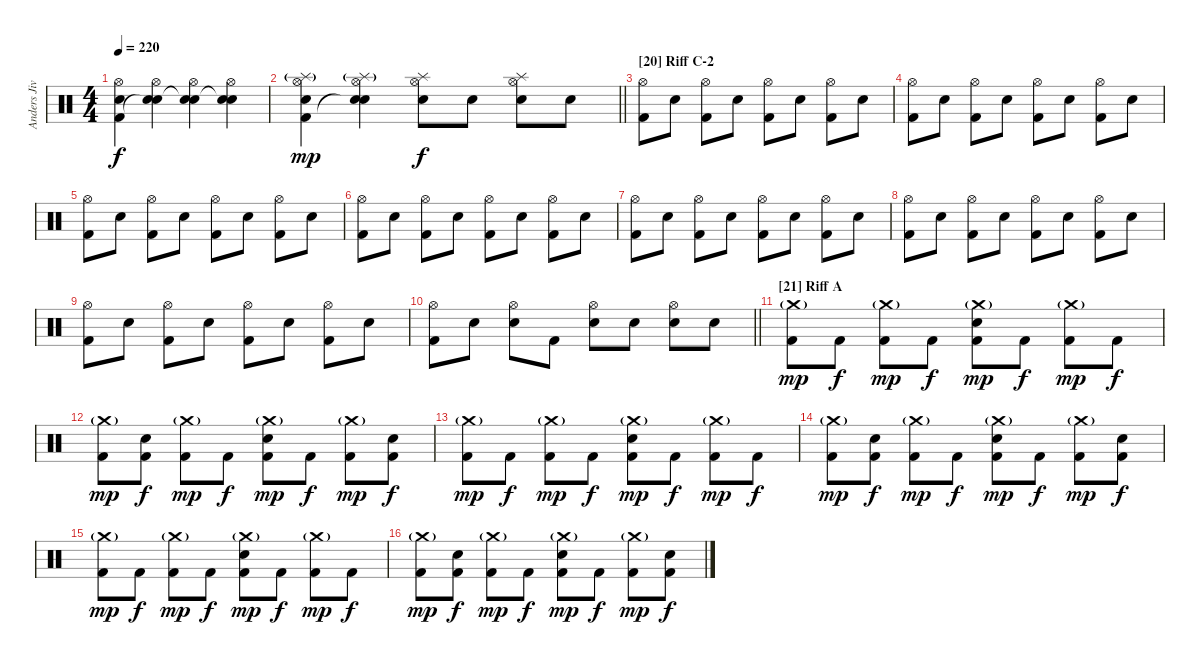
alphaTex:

\track ("Anders Jivarp" "Anders Jiv") {instrument percussion}
\staff {score}
\articulation defaults
\ts (4 4)
\tempo 220
\clef neutral
\ks c
("Hi-Hat (open)" "Snare (hit) 2" "Kick (hit) 2"{t}).4{dy f} ("Hi-Hat (open)" "Snare (hit) 2" "Snare (hit)"{t}).4 ("Hi-Hat (open)" "Snare (hit) 2" "Snare (hit)"{t}).4 ("Hi-Hat (open)" "Snare (hit) 2" "Snare (hit)"{t}).4 |
\barLineRight lightlight
("Splash (hit)"{g} "Hi-Hat (open)" "Snare (hit) 2" "Kick (hit) 2").4{dy mp} ("Splash (hit)"{g} "Hi-Hat (open)" "Snare (hit) 2" "Snare (hit)"{t}).4 ("Splash (hit)" "Hi-Hat (open)" "Snare (hit) 2").8{dy f} "Snare (hit) 2".8 ("Splash (hit)" "Hi-Hat (open)" "Snare (hit) 2").8 "Snare (hit) 2".8 |
\section ("" "[20] Riff C-2")
("Hi-Hat (open)" "Kick (hit) 2").8 "Snare (hit) 2".8 ("Hi-Hat (open)" "Kick (hit) 2").8 "Snare (hit) 2".8 ("Hi-Hat (open)" "Kick (hit) 2").8 "Snare (hit) 2".8 ("Hi-Hat (open)" "Kick (hit) 2").8 "Snare (hit) 2".8 |
("Hi-Hat (open)" "Kick (hit) 2").8 "Snare (hit) 2".8 ("Hi-Hat (open)" "Kick (hit) 2").8 "Snare (hit) 2".8 ("Hi-Hat (open)" "Kick (hit) 2").8 "Snare (hit) 2".8 ("Hi-Hat (open)" "Kick (hit) 2").8 "Snare (hit) 2".8 |
("Hi-Hat (open)" "Kick (hit) 2").8 "Snare (hit) 2".8 ("Hi-Hat (open)" "Kick (hit) 2").8 "Snare (hit) 2".8 ("Hi-Hat (open)" "Kick (hit) 2").8 "Snare (hit) 2".8 ("Hi-Hat (open)" "Kick (hit) 2").8 "Snare (hit) 2".8 |
("Hi-Hat (open)" "Kick (hit) 2").8 "Snare (hit) 2".8 ("Hi-Hat (open)" "Kick (hit) 2").8 "Snare (hit) 2".8 ("Hi-Hat (open)" "Kick (hit) 2").8 "Snare (hit) 2".8 ("Hi-Hat (open)" "Kick (hit) 2").8 "Snare (hit) 2".8 |
("Hi-Hat (open)" "Kick (hit) 2").8 "Snare (hit) 2".8 ("Hi-Hat (open)" "Kick (hit) 2").8 "Snare (hit) 2".8 ("Hi-Hat (open)" "Kick (hit) 2").8 "Snare (hit) 2".8 ("Hi-Hat (open)" "Kick (hit) 2").8 "Snare (hit) 2".8 |
("Hi-Hat (open)" "Kick (hit) 2").8 "Snare (hit) 2".8 ("Hi-Hat (open)" "Kick (hit) 2").8 "Snare (hit) 2".8 ("Hi-Hat (open)" "Kick (hit) 2").8 "Snare (hit) 2".8 ("Hi-Hat (open)" "Kick (hit) 2").8 "Snare (hit) 2".8 |
("Hi-Hat (open)" "Kick (hit) 2").8 "Snare (hit) 2".8 ("Hi-Hat (open)" "Kick (hit) 2").8 "Snare (hit) 2".8 ("Hi-Hat (open)" "Kick (hit) 2").8 "Snare (hit) 2".8 ("Hi-Hat (open)" "Kick (hit) 2").8 "Snare (hit) 2".8 |
\barLineRight lightlight
("Hi-Hat (open)" "Kick (hit) 2").8 "Snare (hit) 2".8 ("Hi-Hat (open)" "Snare (hit) 2").8 "Kick (hit) 2".8 ("Hi-Hat (open)" "Snare (hit) 2").8 "Snare (hit) 2".8 ("Hi-Hat (open)" "Snare (hit) 2").8 "Snare (hit) 2".8 |
\section ("" "[21] Riff A")
("Crash medium (hit)"{g} "Kick (hit) 2").8{dy mp} "Kick (hit) 2".8{dy f} ("Crash medium (hit)"{g} "Kick (hit) 2").8{dy mp} "Kick (hit) 2".8{dy f} ("Crash medium (hit)"{g} "Snare (hit) 2" "Kick (hit) 2").8{dy mp} "Kick (hit) 2".8{dy f} ("Crash medium (hit)"{g} "Kick (hit) 2").8{dy mp} "Kick (hit) 2".8{dy f} |
("Crash medium (hit)"{g} "Kick (hit) 2").8{dy mp} ("Snare (hit) 2" "Kick (hit) 2").8{dy f} ("Crash medium (hit)"{g} "Kick (hit) 2").8{dy mp} "Kick (hit) 2".8{dy f} ("Crash medium (hit)"{g} "Snare (hit) 2" "Kick (hit) 2").8{dy mp} "Kick (hit) 2".8{dy f} ("Crash medium (hit)"{g} "Kick (hit) 2").8{dy mp} ("Snare (hit) 2" "Kick (hit) 2").8{dy f} |
("Crash medium (hit)"{g} "Kick (hit) 2").8{dy mp} "Kick (hit) 2".8{dy f} ("Crash medium (hit)"{g} "Kick (hit) 2").8{dy mp} "Kick (hit) 2".8{dy f} ("Crash medium (hit)"{g} "Snare (hit) 2" "Kick (hit) 2").8{dy mp} "Kick (hit) 2".8{dy f} ("Crash medium (hit)"{g} "Kick (hit) 2").8{dy mp} "Kick (hit) 2".8{dy f} |
("Crash medium (hit)"{g} "Kick (hit) 2").8{dy mp} ("Snare (hit) 2" "Kick (hit) 2").8{dy f} ("Crash medium (hit)"{g} "Kick (hit) 2").8{dy mp} "Kick (hit) 2".8{dy f} ("Crash medium (hit)"{g} "Snare (hit) 2" "Kick (hit) 2").8{dy mp} "Kick (hit) 2".8{dy f} ("Crash medium (hit)"{g} "Kick (hit) 2").8{dy mp} ("Snare (hit) 2" "Kick (hit) 2").8{dy f} |
("Crash medium (hit)"{g} "Kick (hit) 2").8{dy mp} "Kick (hit) 2".8{dy f} ("Crash medium (hit)"{g} "Kick (hit) 2").8{dy mp} "Kick (hit) 2".8{dy f} ("Crash medium (hit)"{g} "Snare (hit) 2" "Kick (hit) 2").8{dy mp} "Kick (hit) 2".8{dy f} ("Crash medium (hit)"{g} "Kick (hit) 2").8{dy mp} "Kick (hit) 2".8{dy f} |
("Crash medium (hit)"{g} "Kick (hit) 2").8{dy mp} ("Snare (hit) 2" "Kick (hit) 2").8{dy f} ("Crash medium (hit)"{g} "Kick (hit) 2").8{dy mp} "Kick (hit) 2".8{dy f} ("Crash medium (hit)"{g} "Snare (hit) 2" "Kick (hit) 2").8{dy mp} "Kick (hit) 2".8{dy f} ("Crash medium (hit)"{g} "Kick (hit) 2").8{dy mp} ("Snare (hit) 2" "Kick (hit) 2").8{dy f}
